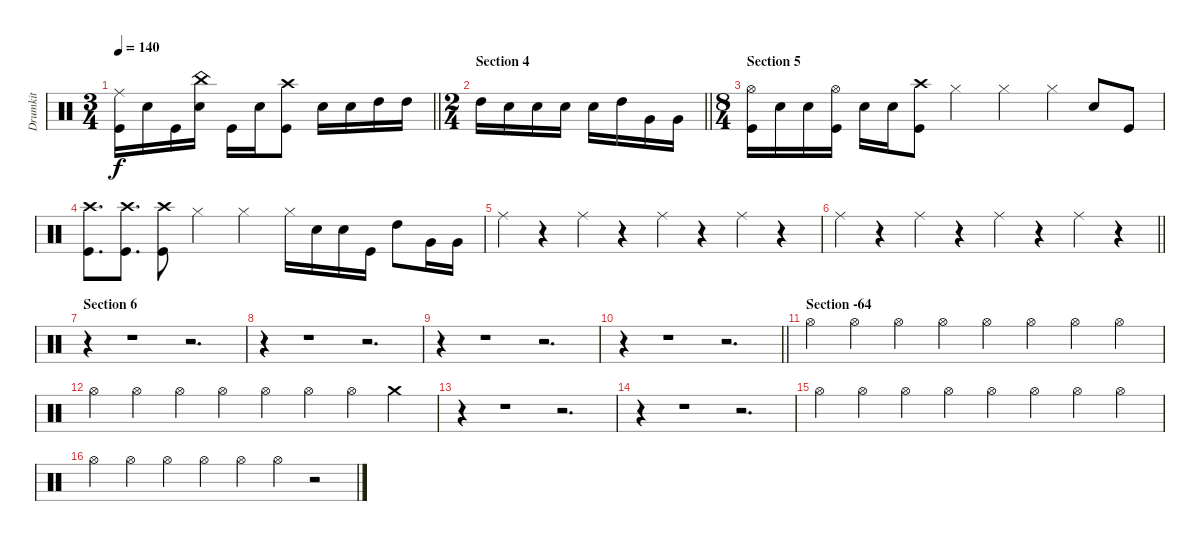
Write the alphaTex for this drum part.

\track ("Drumkit" "Drumkit") {instrument percussion}
\staff {score}
\articulation defaults
\ts (3 4)
\tempo 140
\clef neutral
\barLineRight lightlight
\ks c
("Kick (hit)" "Ride (middle)").16{dy f} "Snare (hit) 2".16 "Kick (hit)".16 ("Snare (hit) 2" "China (hit)").16 "Kick (hit)".16 "Snare (hit) 2".16 ("Crash high (hit)" "Kick (hit)").8 "Snare (hit) 2".16 "Snare (hit) 2".16 "High Tom (hit)".16 "High Tom (hit)".16 |
\ts (2 4)
\section ("" "Section 4")
\barLineRight lightlight "High Tom (hit)".16 "Snare (hit) 2".16 "Snare (hit) 2".16 "Snare (hit) 2".16 "Snare (hit) 2".16 "High Tom (hit)".16 "Very Low Tom (hit)".16 "Very Low Tom (hit)".16
|
\ts (8 4)
\section ("" "Section 5")
("Hi-Hat (open)" "Kick (hit)").16 "Snare (hit) 2".16 "Snare (hit) 2".16 ("Hi-Hat (open)" "Kick (hit)").16 "Snare (hit) 2".16 "Snare (hit) 2".16 ("Crash high (hit)" "Kick (hit)").8 "Hi-Hat (closed)".2 "Hi-Hat (closed)".2 "Hi-Hat (closed)".4 "Snare (hit) 2".8 "Kick (hit)".8 |
("Crash high (hit)" "Kick (hit)").8{d} ("Crash high (hit)" "Kick (hit)").8{d} ("Crash high (hit)" "Kick (hit)").8 "Hi-Hat (closed)".2 "Hi-Hat (closed)".2 "Hi-Hat (closed)".16 "Snare (hit) 2".16 "Snare (hit) 2".16 "Kick (hit)".16 "High Tom (hit)".8 "Very Low Tom (hit)".16 "Very Low Tom (hit)".16 |
"Ride (middle)".4 r.4 "Ride (middle)".4 r.4 "Ride (middle)".4 r.4 "Ride (middle)".4 r.4 |
\barLineRight lightlight "Ride (middle)".4
r.4 "Ride (middle)".4 r.4 "Ride (middle)".4 r.4 "Ride (middle)".4 r.4 |
\section ("" "Section 6")
r.4 r.1 r.2{d} |
r.4 r.1 r.2{d} |
r.4 r.1 r.2{d} |
\barLineRight lightlight
r.4 r.1 r.2{d} |
\section ("" "Section -64")
"Hi-Hat (open)".4 "Hi-Hat (open)".4 "Hi-Hat (open)".4 "Hi-Hat (open)".4 "Hi-Hat (open)".4 "Hi-Hat (open)".4 "Hi-Hat (open)".4 "Hi-Hat (open)".4 |
"Hi-Hat (open)".4 "Hi-Hat (open)".4 "Hi-Hat (open)".4 "Hi-Hat (open)".4 "Hi-Hat (open)".4 "Hi-Hat (open)".4 "Hi-Hat (open)".4 "Crash medium (hit)".4 |
r.4 r.1 r.2{d} |
r.4 r.1 r.2{d} |
"Hi-Hat (open)".4 "Hi-Hat (open)".4 "Hi-Hat (open)".4 "Hi-Hat (open)".4 "Hi-Hat (open)".4 "Hi-Hat (open)".4 "Hi-Hat (open)".4 "Hi-Hat (open)".4 |
"Hi-Hat (open)".4 "Hi-Hat (open)".4 "Hi-Hat (open)".4 "Hi-Hat (open)".4 "Hi-Hat (open)".4 "Hi-Hat (open)".4 r.2
